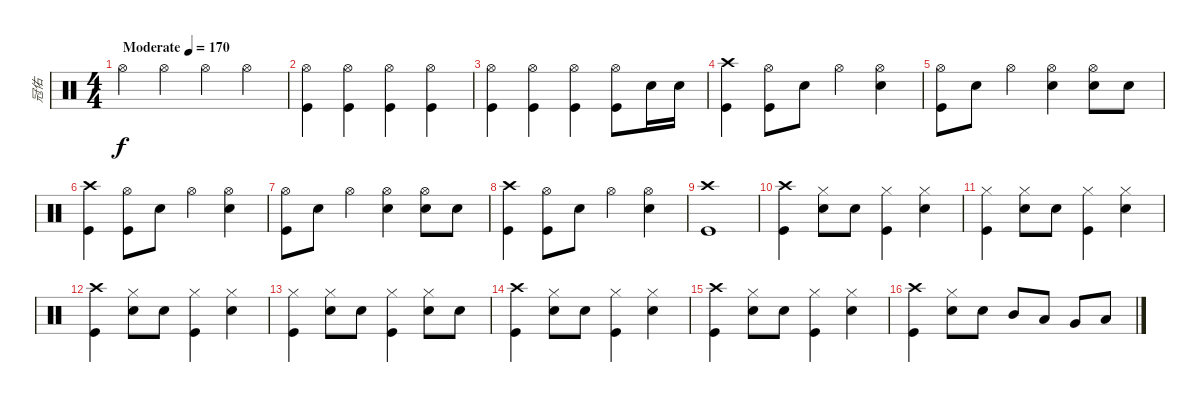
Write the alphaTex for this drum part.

\track ("冠佑" "冠佑") {instrument percussion}
\staff {score}
\articulation defaults
\ts (4 4)
\tempo (170 "Moderate")
\clef neutral
\ks c "Hi-Hat (open)".4{dy f} "Hi-Hat (open)".4 "Hi-Hat (open)".4 "Hi-Hat (open)".4
|
("Hi-Hat (open)" "Kick (hit)").4 ("Hi-Hat (open)" "Kick (hit)").4 ("Hi-Hat (open)" "Kick (hit)").4 ("Hi-Hat (open)" "Kick (hit)").4 |
("Hi-Hat (open)" "Kick (hit)").4 ("Hi-Hat (open)" "Kick (hit)").4 ("Hi-Hat (open)" "Kick (hit)").4 ("Hi-Hat (open)" "Kick (hit)").8 "Snare (hit) 2".16 "Snare (hit) 2".16 |
("Crash high (hit)" "Kick (hit)").4 ("Hi-Hat (open)" "Kick (hit)").8 "Snare (hit) 2".8 "Hi-Hat (open)".4 ("Hi-Hat (open)" "Snare (hit) 2").4 |
("Hi-Hat (open)" "Kick (hit)").8 "Snare (hit) 2".8 "Hi-Hat (open)".4 ("Hi-Hat (open)" "Snare (hit) 2").4 ("Hi-Hat (open)" "Snare (hit) 2").8 "Snare (hit) 2".8 |
("Crash high (hit)" "Kick (hit)").4 ("Hi-Hat (open)" "Kick (hit)").8 "Snare (hit) 2".8 "Hi-Hat (open)".4 ("Hi-Hat (open)" "Snare (hit) 2").4 |
("Hi-Hat (open)" "Kick (hit)").8 "Snare (hit) 2".8 "Hi-Hat (open)".4 ("Hi-Hat (open)" "Snare (hit) 2").4 ("Hi-Hat (open)" "Snare (hit) 2").8 "Snare (hit) 2".8 |
("Crash high (hit)" "Kick (hit)").4 ("Hi-Hat (open)" "Kick (hit)").8 "Snare (hit) 2".8 "Hi-Hat (open)".4 ("Hi-Hat (open)" "Snare (hit) 2").4 |
("Crash high (hit)" "Kick (hit)").1 |
("Crash high (hit)" "Kick (hit)").4 ("Hi-Hat (closed)" "Snare (hit) 2").8 "Snare (hit) 2".8 ("Hi-Hat (closed)" "Kick (hit)").4 ("Hi-Hat (closed)" "Snare (hit) 2").4 |
("Hi-Hat (closed)" "Kick (hit)").4 ("Hi-Hat (closed)" "Snare (hit) 2").8 "Snare (hit) 2".8 ("Hi-Hat (closed)" "Kick (hit)").4 ("Hi-Hat (closed)" "Snare (hit) 2").4 |
("Crash high (hit)" "Kick (hit)").4 ("Hi-Hat (closed)" "Snare (hit) 2").8 "Snare (hit) 2".8 ("Hi-Hat (closed)" "Kick (hit)").4 ("Hi-Hat (closed)" "Snare (hit) 2").4 |
("Hi-Hat (closed)" "Kick (hit)").4 ("Hi-Hat (closed)" "Snare (hit) 2").8 "Snare (hit) 2".8 ("Hi-Hat (closed)" "Kick (hit)").4 ("Hi-Hat (closed)" "Snare (hit) 2").8 "Snare (hit) 2".8 |
("Crash high (hit)" "Kick (hit)").4 ("Hi-Hat (closed)" "Snare (hit) 2").8 "Snare (hit) 2".8 ("Hi-Hat (closed)" "Kick (hit)").4 ("Hi-Hat (closed)" "Snare (hit) 2").4 |
("Crash high (hit)" "Kick (hit)").4 ("Hi-Hat (closed)" "Snare (hit) 2").8 "Snare (hit) 2".8 ("Hi-Hat (closed)" "Kick (hit)").4 ("Hi-Hat (closed)" "Snare (hit) 2").4 |
("Crash high (hit)" "Kick (hit)").4 ("Hi-Hat (closed)" "Snare (hit) 2").8 "Snare (hit) 2".8 "Mid Tom (hit)".8 "Low Tom (hit)".8 "Very Low Tom (hit)".8 "Low Floor Tom (hit)".8
